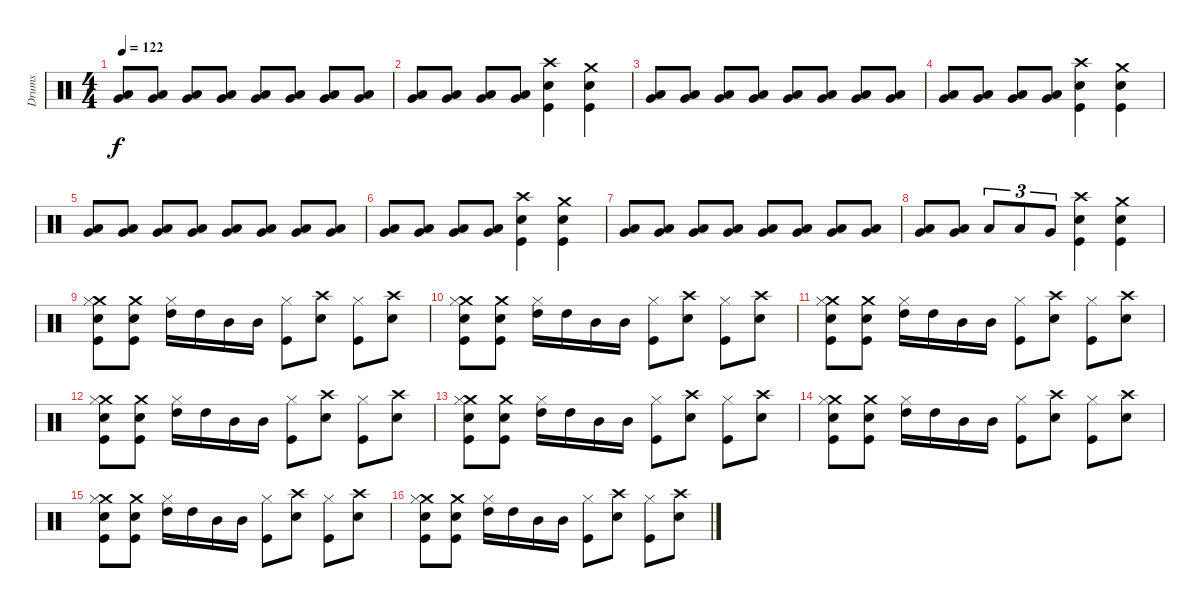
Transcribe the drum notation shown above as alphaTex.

\track ("Drums" "Drums") {instrument percussion}
\staff {score}
\articulation defaults
\ts (4 4)
\tempo 122
\clef neutral
\ks c
("Low Floor Tom (hit)" "Very Low Tom (hit)").8{dy f} ("Low Floor Tom (hit)" "Very Low Tom (hit)").8 ("Low Floor Tom (hit)" "Very Low Tom (hit)").8 ("Low Floor Tom (hit)" "Very Low Tom (hit)").8 ("Low Floor Tom (hit)" "Very Low Tom (hit)").8 ("Low Floor Tom (hit)" "Very Low Tom (hit)").8 ("Low Floor Tom (hit)" "Very Low Tom (hit)").8 ("Low Floor Tom (hit)" "Very Low Tom (hit)").8 |
("Low Floor Tom (hit)" "Very Low Tom (hit)").8 ("Low Floor Tom (hit)" "Very Low Tom (hit)").8 ("Low Floor Tom (hit)" "Very Low Tom (hit)").8 ("Low Floor Tom (hit)" "Very Low Tom (hit)").8 ("Crash high (hit)" "Electric Snare (hit)" "Kick (hit)").4 ("Crash medium (hit)" "Electric Snare (hit)" "Kick (hit)").4 |
("Low Floor Tom (hit)" "Very Low Tom (hit)").8 ("Low Floor Tom (hit)" "Very Low Tom (hit)").8 ("Low Floor Tom (hit)" "Very Low Tom (hit)").8 ("Low Floor Tom (hit)" "Very Low Tom (hit)").8 ("Low Floor Tom (hit)" "Very Low Tom (hit)").8 ("Low Floor Tom (hit)" "Very Low Tom (hit)").8 ("Low Floor Tom (hit)" "Very Low Tom (hit)").8 ("Low Floor Tom (hit)" "Very Low Tom (hit)").8 |
("Low Floor Tom (hit)" "Very Low Tom (hit)").8 ("Low Floor Tom (hit)" "Very Low Tom (hit)").8 ("Low Floor Tom (hit)" "Very Low Tom (hit)").8 ("Low Floor Tom (hit)" "Very Low Tom (hit)").8 ("Crash high (hit)" "Electric Snare (hit)" "Kick (hit)").4 ("Crash medium (hit)" "Electric Snare (hit)" "Kick (hit)").4 |
("Low Floor Tom (hit)" "Very Low Tom (hit)").8 ("Low Floor Tom (hit)" "Very Low Tom (hit)").8 ("Low Floor Tom (hit)" "Very Low Tom (hit)").8 ("Low Floor Tom (hit)" "Very Low Tom (hit)").8 ("Low Floor Tom (hit)" "Very Low Tom (hit)").8 ("Low Floor Tom (hit)" "Very Low Tom (hit)").8 ("Low Floor Tom (hit)" "Very Low Tom (hit)").8 ("Low Floor Tom (hit)" "Very Low Tom (hit)").8 |
("Low Floor Tom (hit)" "Very Low Tom (hit)").8 ("Low Floor Tom (hit)" "Very Low Tom (hit)").8 ("Low Floor Tom (hit)" "Very Low Tom (hit)").8 ("Low Floor Tom (hit)" "Very Low Tom (hit)").8 ("Crash high (hit)" "Electric Snare (hit)" "Kick (hit)").4 ("Crash medium (hit)" "Electric Snare (hit)" "Kick (hit)").4 |
("Low Floor Tom (hit)" "Very Low Tom (hit)").8 ("Low Floor Tom (hit)" "Very Low Tom (hit)").8 ("Low Floor Tom (hit)" "Very Low Tom (hit)").8 ("Low Floor Tom (hit)" "Very Low Tom (hit)").8 ("Low Floor Tom (hit)" "Very Low Tom (hit)").8 ("Low Floor Tom (hit)" "Very Low Tom (hit)").8 ("Low Floor Tom (hit)" "Very Low Tom (hit)").8 ("Low Floor Tom (hit)" "Very Low Tom (hit)").8 |
("Low Floor Tom (hit)" "Very Low Tom (hit)").8 ("Low Floor Tom (hit)" "Very Low Tom (hit)").8 "Low Tom (hit)".8{tu (3 2)} "Low Tom (hit)".8{tu (3 2)} "Very Low Tom (hit)".8{tu (3 2)} ("Crash high (hit)" "Electric Snare (hit)" "Kick (hit)").4 ("Crash medium (hit)" "Electric Snare (hit)" "Kick (hit)").4 |
("Crash medium (hit)" "Hi-Hat (closed)" "Electric Snare (hit)" "Kick (hit)").8 ("Crash medium (hit)" "Electric Snare (hit)" "Kick (hit)").8 ("High Tom (hit)" "Hi-Hat (closed)").16 "High Tom (hit)".16 "Mid Tom (hit)".16 "Mid Tom (hit)".16 ("Hi-Hat (closed)" "Kick (hit)").8 ("Crash high (hit)" "Electric Snare (hit)").8 ("Hi-Hat (closed)" "Kick (hit)").8 ("Crash high (hit)" "Electric Snare (hit)").8 |
("Crash medium (hit)" "Hi-Hat (closed)" "Electric Snare (hit)" "Kick (hit)").8 ("Crash medium (hit)" "Electric Snare (hit)" "Kick (hit)").8 ("High Tom (hit)" "Hi-Hat (closed)").16 "High Tom (hit)".16 "Mid Tom (hit)".16 "Mid Tom (hit)".16 ("Hi-Hat (closed)" "Kick (hit)").8 ("Crash high (hit)" "Electric Snare (hit)").8 ("Hi-Hat (closed)" "Kick (hit)").8 ("Crash high (hit)" "Electric Snare (hit)").8 |
("Crash medium (hit)" "Hi-Hat (closed)" "Electric Snare (hit)" "Kick (hit)").8 ("Crash medium (hit)" "Electric Snare (hit)" "Kick (hit)").8 ("High Tom (hit)" "Hi-Hat (closed)").16 "High Tom (hit)".16 "Mid Tom (hit)".16 "Mid Tom (hit)".16 ("Hi-Hat (closed)" "Kick (hit)").8 ("Crash high (hit)" "Electric Snare (hit)").8 ("Hi-Hat (closed)" "Kick (hit)").8 ("Crash high (hit)" "Electric Snare (hit)").8 |
("Crash medium (hit)" "Hi-Hat (closed)" "Electric Snare (hit)" "Kick (hit)").8 ("Crash medium (hit)" "Electric Snare (hit)" "Kick (hit)").8 ("High Tom (hit)" "Hi-Hat (closed)").16 "High Tom (hit)".16 "Mid Tom (hit)".16 "Mid Tom (hit)".16 ("Hi-Hat (closed)" "Kick (hit)").8 ("Crash high (hit)" "Electric Snare (hit)").8 ("Hi-Hat (closed)" "Kick (hit)").8 ("Crash high (hit)" "Electric Snare (hit)").8 |
("Crash medium (hit)" "Hi-Hat (closed)" "Electric Snare (hit)" "Kick (hit)").8 ("Crash medium (hit)" "Electric Snare (hit)" "Kick (hit)").8 ("High Tom (hit)" "Hi-Hat (closed)").16 "High Tom (hit)".16 "Mid Tom (hit)".16 "Mid Tom (hit)".16 ("Hi-Hat (closed)" "Kick (hit)").8 ("Crash high (hit)" "Electric Snare (hit)").8 ("Hi-Hat (closed)" "Kick (hit)").8 ("Crash high (hit)" "Electric Snare (hit)").8 |
("Crash medium (hit)" "Hi-Hat (closed)" "Electric Snare (hit)" "Kick (hit)").8 ("Crash medium (hit)" "Electric Snare (hit)" "Kick (hit)").8 ("High Tom (hit)" "Hi-Hat (closed)").16 "High Tom (hit)".16 "Mid Tom (hit)".16 "Mid Tom (hit)".16 ("Hi-Hat (closed)" "Kick (hit)").8 ("Crash high (hit)" "Electric Snare (hit)").8 ("Hi-Hat (closed)" "Kick (hit)").8 ("Crash high (hit)" "Electric Snare (hit)").8 |
("Crash medium (hit)" "Hi-Hat (closed)" "Electric Snare (hit)" "Kick (hit)").8 ("Crash medium (hit)" "Electric Snare (hit)" "Kick (hit)").8 ("High Tom (hit)" "Hi-Hat (closed)").16 "High Tom (hit)".16 "Mid Tom (hit)".16 "Mid Tom (hit)".16 ("Hi-Hat (closed)" "Kick (hit)").8 ("Crash high (hit)" "Electric Snare (hit)").8 ("Hi-Hat (closed)" "Kick (hit)").8 ("Crash high (hit)" "Electric Snare (hit)").8 |
("Crash medium (hit)" "Hi-Hat (closed)" "Electric Snare (hit)" "Kick (hit)").8 ("Crash medium (hit)" "Electric Snare (hit)" "Kick (hit)").8 ("High Tom (hit)" "Hi-Hat (closed)").16 "High Tom (hit)".16 "Mid Tom (hit)".16 "Mid Tom (hit)".16 ("Hi-Hat (closed)" "Kick (hit)").8 ("Crash high (hit)" "Electric Snare (hit)").8 ("Hi-Hat (closed)" "Kick (hit)").8 ("Crash high (hit)" "Electric Snare (hit)").8
